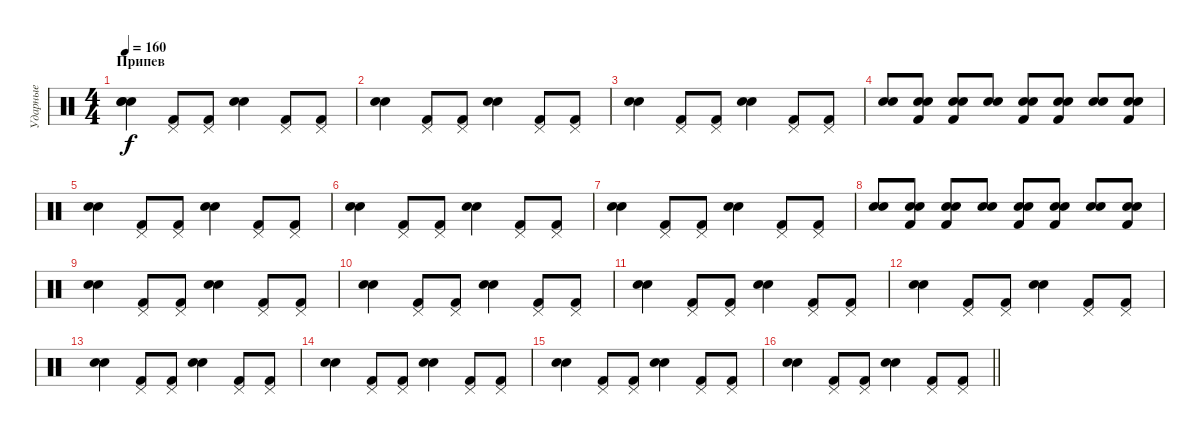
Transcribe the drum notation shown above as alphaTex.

\track ("Ударные" "Ударные") {instrument percussion}
\staff {score}
\articulation defaults
\ts (4 4)
\section ("" "Припев")
\tempo 160
\clef neutral
\ks c
("Snare (hit) 2" "Electric Snare (hit)" "Snare (hit)"{t}).4{dy f} ("Kick (hit) 2" "Pedal Hi-Hat (hit)").8 ("Kick (hit) 2" "Pedal Hi-Hat (hit)").8 ("Snare (hit) 2" "Electric Snare (hit)").4 ("Kick (hit) 2" "Pedal Hi-Hat (hit)").8 ("Kick (hit) 2" "Pedal Hi-Hat (hit)").8 |
("Snare (hit) 2" "Electric Snare (hit)").4 ("Kick (hit) 2" "Pedal Hi-Hat (hit)").8 ("Kick (hit) 2" "Pedal Hi-Hat (hit)").8 ("Snare (hit) 2" "Electric Snare (hit)").4 ("Kick (hit) 2" "Pedal Hi-Hat (hit)").8 ("Kick (hit) 2" "Pedal Hi-Hat (hit)").8 |
("Snare (hit) 2" "Electric Snare (hit)").4 ("Kick (hit) 2" "Pedal Hi-Hat (hit)").8 ("Kick (hit) 2" "Pedal Hi-Hat (hit)").8 ("Snare (hit) 2" "Electric Snare (hit)").4 ("Kick (hit) 2" "Pedal Hi-Hat (hit)").8 ("Kick (hit) 2" "Pedal Hi-Hat (hit)").8 |
("Snare (hit) 2" "Electric Snare (hit)").8 ("Snare (hit) 2" "Kick (hit) 2" "Electric Snare (hit)").8 ("Snare (hit) 2" "Kick (hit) 2" "Electric Snare (hit)").8 ("Snare (hit) 2" "Electric Snare (hit)").8 ("Snare (hit) 2" "Kick (hit) 2" "Electric Snare (hit)").8 ("Snare (hit) 2" "Kick (hit) 2" "Electric Snare (hit)").8 ("Snare (hit) 2" "Electric Snare (hit)").8 ("Snare (hit) 2" "Kick (hit) 2" "Electric Snare (hit)").8 |
("Snare (hit) 2" "Electric Snare (hit)").4 ("Kick (hit) 2" "Pedal Hi-Hat (hit)").8 ("Kick (hit) 2" "Pedal Hi-Hat (hit)").8 ("Snare (hit) 2" "Electric Snare (hit)").4 ("Kick (hit) 2" "Pedal Hi-Hat (hit)").8 ("Kick (hit) 2" "Pedal Hi-Hat (hit)").8 |
("Snare (hit) 2" "Electric Snare (hit)").4 ("Kick (hit) 2" "Pedal Hi-Hat (hit)").8 ("Kick (hit) 2" "Pedal Hi-Hat (hit)").8 ("Snare (hit) 2" "Electric Snare (hit)").4 ("Kick (hit) 2" "Pedal Hi-Hat (hit)").8 ("Kick (hit) 2" "Pedal Hi-Hat (hit)").8 |
("Snare (hit) 2" "Electric Snare (hit)").4 ("Kick (hit) 2" "Pedal Hi-Hat (hit)").8 ("Kick (hit) 2" "Pedal Hi-Hat (hit)").8 ("Snare (hit) 2" "Electric Snare (hit)").4 ("Kick (hit) 2" "Pedal Hi-Hat (hit)").8 ("Kick (hit) 2" "Pedal Hi-Hat (hit)").8 |
("Snare (hit) 2" "Electric Snare (hit)").8 ("Snare (hit) 2" "Kick (hit) 2" "Electric Snare (hit)").8 ("Snare (hit) 2" "Kick (hit) 2" "Electric Snare (hit)").8 ("Snare (hit) 2" "Electric Snare (hit)").8 ("Snare (hit) 2" "Kick (hit) 2" "Electric Snare (hit)").8 ("Snare (hit) 2" "Kick (hit) 2" "Electric Snare (hit)").8 ("Snare (hit) 2" "Electric Snare (hit)").8 ("Snare (hit) 2" "Kick (hit) 2" "Electric Snare (hit)").8 |
("Snare (hit) 2" "Electric Snare (hit)").4 ("Kick (hit) 2" "Pedal Hi-Hat (hit)").8 ("Kick (hit) 2" "Pedal Hi-Hat (hit)").8 ("Snare (hit) 2" "Electric Snare (hit)").4 ("Kick (hit) 2" "Pedal Hi-Hat (hit)").8 ("Kick (hit) 2" "Pedal Hi-Hat (hit)").8 |
("Snare (hit) 2" "Electric Snare (hit)").4 ("Kick (hit) 2" "Pedal Hi-Hat (hit)").8 ("Kick (hit) 2" "Pedal Hi-Hat (hit)").8 ("Snare (hit) 2" "Electric Snare (hit)").4 ("Kick (hit) 2" "Pedal Hi-Hat (hit)").8 ("Kick (hit) 2" "Pedal Hi-Hat (hit)").8 |
("Snare (hit) 2" "Electric Snare (hit)").4 ("Kick (hit) 2" "Pedal Hi-Hat (hit)").8 ("Kick (hit) 2" "Pedal Hi-Hat (hit)").8 ("Snare (hit) 2" "Electric Snare (hit)").4 ("Kick (hit) 2" "Pedal Hi-Hat (hit)").8 ("Kick (hit) 2" "Pedal Hi-Hat (hit)").8 |
("Snare (hit) 2" "Electric Snare (hit)").4 ("Kick (hit) 2" "Pedal Hi-Hat (hit)").8 ("Kick (hit) 2" "Pedal Hi-Hat (hit)").8 ("Snare (hit) 2" "Electric Snare (hit)").4 ("Kick (hit) 2" "Pedal Hi-Hat (hit)").8 ("Kick (hit) 2" "Pedal Hi-Hat (hit)").8 |
("Snare (hit) 2" "Electric Snare (hit)").4 ("Kick (hit) 2" "Pedal Hi-Hat (hit)").8 ("Kick (hit) 2" "Pedal Hi-Hat (hit)").8 ("Snare (hit) 2" "Electric Snare (hit)").4 ("Kick (hit) 2" "Pedal Hi-Hat (hit)").8 ("Kick (hit) 2" "Pedal Hi-Hat (hit)").8 |
("Snare (hit) 2" "Electric Snare (hit)").4 ("Kick (hit) 2" "Pedal Hi-Hat (hit)").8 ("Kick (hit) 2" "Pedal Hi-Hat (hit)").8 ("Snare (hit) 2" "Electric Snare (hit)").4 ("Kick (hit) 2" "Pedal Hi-Hat (hit)").8 ("Kick (hit) 2" "Pedal Hi-Hat (hit)").8 |
("Snare (hit) 2" "Electric Snare (hit)").4 ("Kick (hit) 2" "Pedal Hi-Hat (hit)").8 ("Kick (hit) 2" "Pedal Hi-Hat (hit)").8 ("Snare (hit) 2" "Electric Snare (hit)").4 ("Kick (hit) 2" "Pedal Hi-Hat (hit)").8 ("Kick (hit) 2" "Pedal Hi-Hat (hit)").8 |
\barLineRight lightlight
("Snare (hit) 2" "Electric Snare (hit)").4 ("Kick (hit) 2" "Pedal Hi-Hat (hit)").8 ("Kick (hit) 2" "Pedal Hi-Hat (hit)").8 ("Snare (hit) 2" "Electric Snare (hit)").4 ("Kick (hit) 2" "Pedal Hi-Hat (hit)").8 ("Kick (hit) 2" "Pedal Hi-Hat (hit)").8
